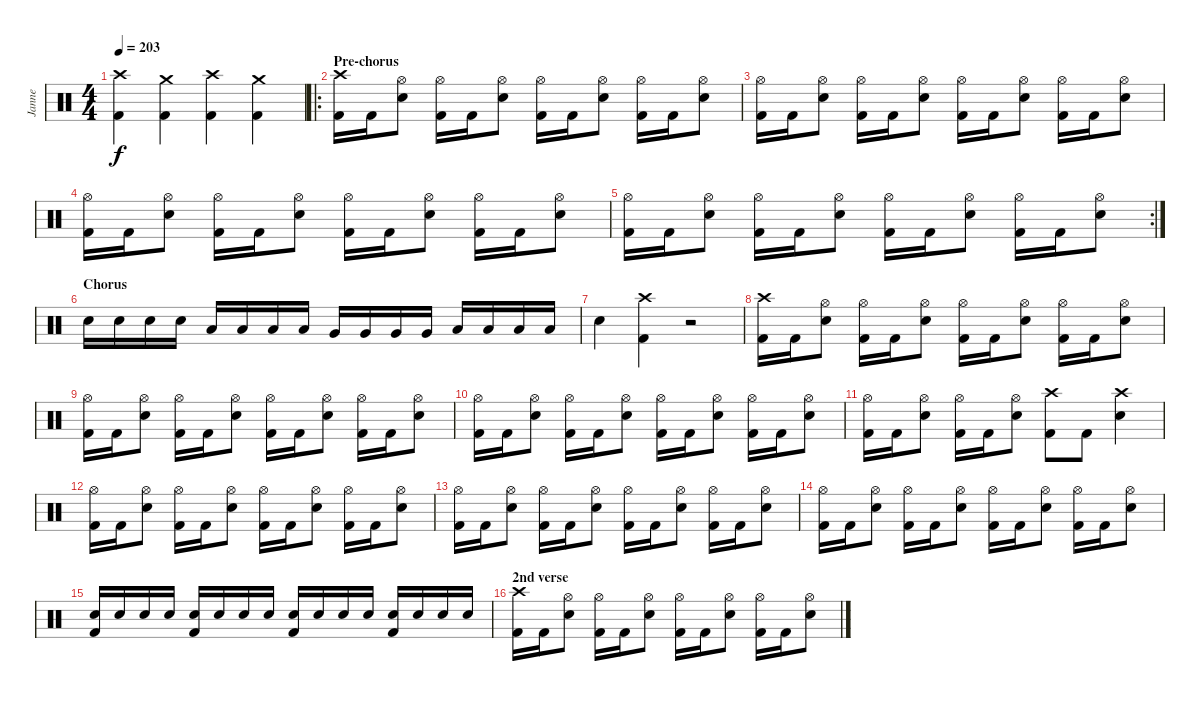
\track ("Janne" "Janne") {instrument percussion}
\staff {score}
\articulation defaults
\ts (4 4)
\tempo 203
\clef neutral
\ks c
("Crash high (hit)" "Kick (hit) 2").4{dy f} ("Crash medium (hit)" "Kick (hit) 2").4 ("Crash high (hit)" "Kick (hit) 2").4 ("Crash medium (hit)" "Kick (hit) 2").4 |
\ro
\section ("" "Pre-chorus")
("Crash high (hit)" "Kick (hit) 2").16 "Kick (hit) 2".16 ("Hi-Hat (open)" "Electric Snare (hit)").8 ("Hi-Hat (open)" "Kick (hit) 2").16 "Kick (hit) 2".16 ("Hi-Hat (open)" "Electric Snare (hit)").8 ("Hi-Hat (open)" "Kick (hit) 2").16 "Kick (hit) 2".16 ("Hi-Hat (open)" "Electric Snare (hit)").8 ("Hi-Hat (open)" "Kick (hit) 2").16 "Kick (hit) 2".16 ("Hi-Hat (open)" "Electric Snare (hit)").8 |
("Hi-Hat (open)" "Kick (hit) 2").16 "Kick (hit) 2".16 ("Hi-Hat (open)" "Electric Snare (hit)").8 ("Hi-Hat (open)" "Kick (hit) 2").16 "Kick (hit) 2".16 ("Hi-Hat (open)" "Electric Snare (hit)").8 ("Hi-Hat (open)" "Kick (hit) 2").16 "Kick (hit) 2".16 ("Hi-Hat (open)" "Electric Snare (hit)").8 ("Hi-Hat (open)" "Kick (hit) 2").16 "Kick (hit) 2".16 ("Hi-Hat (open)" "Electric Snare (hit)").8 |
("Hi-Hat (open)" "Kick (hit) 2").16 "Kick (hit) 2".16 ("Hi-Hat (open)" "Electric Snare (hit)").8 ("Hi-Hat (open)" "Kick (hit) 2").16 "Kick (hit) 2".16 ("Hi-Hat (open)" "Electric Snare (hit)").8 ("Hi-Hat (open)" "Kick (hit) 2").16 "Kick (hit) 2".16 ("Hi-Hat (open)" "Electric Snare (hit)").8 ("Hi-Hat (open)" "Kick (hit) 2").16 "Kick (hit) 2".16 ("Hi-Hat (open)" "Electric Snare (hit)").8 |
\rc 2
("Hi-Hat (open)" "Kick (hit) 2").16 "Kick (hit) 2".16 ("Hi-Hat (open)" "Electric Snare (hit)").8 ("Hi-Hat (open)" "Kick (hit) 2").16 "Kick (hit) 2".16 ("Hi-Hat (open)" "Electric Snare (hit)").8 ("Hi-Hat (open)" "Kick (hit) 2").16 "Kick (hit) 2".16 ("Hi-Hat (open)" "Electric Snare (hit)").8 ("Hi-Hat (open)" "Kick (hit) 2").16 "Kick (hit) 2".16 ("Hi-Hat (open)" "Electric Snare (hit)").8 |
\section ("" "Chorus")
"Electric Snare (hit)".16 "Electric Snare (hit)".16 "Electric Snare (hit)".16 "Electric Snare (hit)".16 "Low Tom (hit)".16 "Low Tom (hit)".16 "Low Tom (hit)".16 "Low Tom (hit)".16 "Very Low Tom (hit)".16 "Very Low Tom (hit)".16 "Very Low Tom (hit)".16 "Very Low Tom (hit)".16 "Low Floor Tom (hit)".16 "Low Floor Tom (hit)".16 "Low Floor Tom (hit)".16 "Low Floor Tom (hit)".16 |
"Electric Snare (hit)".4 ("Crash high (hit)" "Kick (hit) 2").4 r.2 |
("Crash high (hit)" "Kick (hit) 2").16 "Kick (hit) 2".16 ("Hi-Hat (open)" "Electric Snare (hit)").8 ("Hi-Hat (open)" "Kick (hit) 2").16 "Kick (hit) 2".16 ("Hi-Hat (open)" "Electric Snare (hit)").8 ("Hi-Hat (open)" "Kick (hit) 2").16 "Kick (hit) 2".16 ("Hi-Hat (open)" "Electric Snare (hit)").8 ("Hi-Hat (open)" "Kick (hit) 2").16 "Kick (hit) 2".16 ("Hi-Hat (open)" "Electric Snare (hit)").8 |
("Hi-Hat (open)" "Kick (hit) 2").16 "Kick (hit) 2".16 ("Hi-Hat (open)" "Electric Snare (hit)").8 ("Hi-Hat (open)" "Kick (hit) 2").16 "Kick (hit) 2".16 ("Hi-Hat (open)" "Electric Snare (hit)").8 ("Hi-Hat (open)" "Kick (hit) 2").16 "Kick (hit) 2".16 ("Hi-Hat (open)" "Electric Snare (hit)").8 ("Hi-Hat (open)" "Kick (hit) 2").16 "Kick (hit) 2".16 ("Hi-Hat (open)" "Electric Snare (hit)").8 |
("Hi-Hat (open)" "Kick (hit) 2").16 "Kick (hit) 2".16 ("Hi-Hat (open)" "Electric Snare (hit)").8 ("Hi-Hat (open)" "Kick (hit) 2").16 "Kick (hit) 2".16 ("Hi-Hat (open)" "Electric Snare (hit)").8 ("Hi-Hat (open)" "Kick (hit) 2").16 "Kick (hit) 2".16 ("Hi-Hat (open)" "Electric Snare (hit)").8 ("Hi-Hat (open)" "Kick (hit) 2").16 "Kick (hit) 2".16 ("Hi-Hat (open)" "Electric Snare (hit)").8 |
("Hi-Hat (open)" "Kick (hit) 2").16 "Kick (hit) 2".16 ("Hi-Hat (open)" "Electric Snare (hit)").8 ("Hi-Hat (open)" "Kick (hit) 2").16 "Kick (hit) 2".16 ("Hi-Hat (open)" "Electric Snare (hit)").8 ("Crash high (hit)" "Kick (hit) 2").8 "Kick (hit) 2".8 ("Crash high (hit)" "Electric Snare (hit)").4 |
("Hi-Hat (open)" "Kick (hit) 2").16 "Kick (hit) 2".16 ("Hi-Hat (open)" "Electric Snare (hit)").8 ("Hi-Hat (open)" "Kick (hit) 2").16 "Kick (hit) 2".16 ("Hi-Hat (open)" "Electric Snare (hit)").8 ("Hi-Hat (open)" "Kick (hit) 2").16 "Kick (hit) 2".16 ("Hi-Hat (open)" "Electric Snare (hit)").8 ("Hi-Hat (open)" "Kick (hit) 2").16 "Kick (hit) 2".16 ("Hi-Hat (open)" "Electric Snare (hit)").8 |
("Hi-Hat (open)" "Kick (hit) 2").16 "Kick (hit) 2".16 ("Hi-Hat (open)" "Electric Snare (hit)").8 ("Hi-Hat (open)" "Kick (hit) 2").16 "Kick (hit) 2".16 ("Hi-Hat (open)" "Electric Snare (hit)").8 ("Hi-Hat (open)" "Kick (hit) 2").16 "Kick (hit) 2".16 ("Hi-Hat (open)" "Electric Snare (hit)").8 ("Hi-Hat (open)" "Kick (hit) 2").16 "Kick (hit) 2".16 ("Hi-Hat (open)" "Electric Snare (hit)").8 |
("Hi-Hat (open)" "Kick (hit) 2").16 "Kick (hit) 2".16 ("Hi-Hat (open)" "Electric Snare (hit)").8 ("Hi-Hat (open)" "Kick (hit) 2").16 "Kick (hit) 2".16 ("Hi-Hat (open)" "Electric Snare (hit)").8 ("Hi-Hat (open)" "Kick (hit) 2").16 "Kick (hit) 2".16 ("Hi-Hat (open)" "Electric Snare (hit)").8 ("Hi-Hat (open)" "Kick (hit) 2").16 "Kick (hit) 2".16 ("Hi-Hat (open)" "Electric Snare (hit)").8 |
("Electric Snare (hit)" "Kick (hit) 2").16 "Electric Snare (hit)".16 "Electric Snare (hit)".16 "Electric Snare (hit)".16 ("Electric Snare (hit)" "Kick (hit) 2").16 "Electric Snare (hit)".16 "Electric Snare (hit)".16 "Electric Snare (hit)".16 ("Electric Snare (hit)" "Kick (hit) 2").16 "Electric Snare (hit)".16 "Electric Snare (hit)".16 "Electric Snare (hit)".16 ("Electric Snare (hit)" "Kick (hit) 2").16 "Electric Snare (hit)".16 "Electric Snare (hit)".16 "Electric Snare (hit)".16 |
\section ("" "2nd verse")
("Crash high (hit)" "Kick (hit) 2").16 "Kick (hit) 2".16 ("Hi-Hat (open)" "Electric Snare (hit)").8 ("Hi-Hat (open)" "Kick (hit) 2").16 "Kick (hit) 2".16 ("Hi-Hat (open)" "Electric Snare (hit)").8 ("Hi-Hat (open)" "Kick (hit) 2").16 "Kick (hit) 2".16 ("Hi-Hat (open)" "Electric Snare (hit)").8 ("Hi-Hat (open)" "Kick (hit) 2").16 "Kick (hit) 2".16 ("Hi-Hat (open)" "Electric Snare (hit)").8
